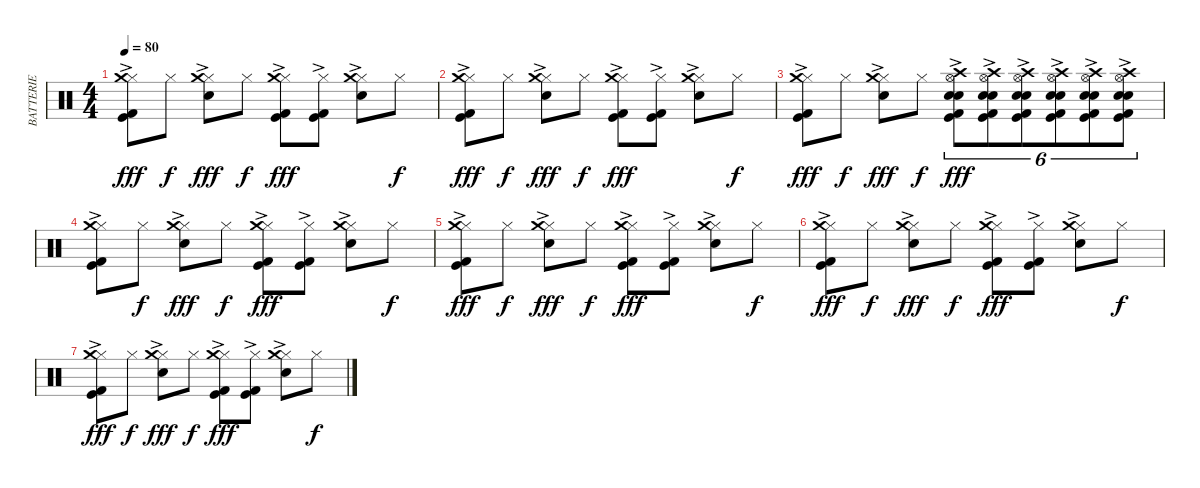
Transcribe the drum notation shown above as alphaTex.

\track ("BATTERIE" "BATTERIE") {instrument percussion}
\staff {score}
\articulation defaults
\ts (4 4)
\tempo 80
\clef neutral
\ks c
("Hi-Hat (closed)"{ac} "Crash medium (hit)" "Kick (hit)"{ac} "Kick (hit) 2"{ac}).8{dy fff} "Hi-Hat (closed)".8{dy f} ("Hi-Hat (closed)"{ac} "Electric Snare (hit)" "Crash medium (hit)").8{dy fff} "Hi-Hat (closed)".8{dy f} ("Hi-Hat (closed)"{ac} "Crash medium (hit)" "Kick (hit)"{ac} "Kick (hit) 2"{ac}).8{dy fff} ("Hi-Hat (closed)" "Kick (hit)"{ac} "Kick (hit) 2"{ac}).8 ("Hi-Hat (closed)"{ac} "Electric Snare (hit)" "Crash medium (hit)").8 "Hi-Hat (closed)".8{dy f} |
("Hi-Hat (closed)"{ac} "Crash medium (hit)" "Kick (hit)"{ac} "Kick (hit) 2"{ac}).8{dy fff} "Hi-Hat (closed)".8{dy f} ("Hi-Hat (closed)"{ac} "Electric Snare (hit)" "Crash medium (hit)").8{dy fff} "Hi-Hat (closed)".8{dy f} ("Hi-Hat (closed)"{ac} "Crash medium (hit)" "Kick (hit)"{ac} "Kick (hit) 2"{ac}).8{dy fff} ("Hi-Hat (closed)" "Kick (hit)"{ac} "Kick (hit) 2"{ac}).8 ("Hi-Hat (closed)"{ac} "Electric Snare (hit)" "Crash medium (hit)").8 "Hi-Hat (closed)".8{dy f} |
("Hi-Hat (closed)"{ac} "Crash medium (hit)" "Kick (hit)"{ac} "Kick (hit) 2"{ac}).8{dy fff} "Hi-Hat (closed)".8{dy f} ("Hi-Hat (closed)"{ac} "Electric Snare (hit)" "Crash medium (hit)").8{dy fff} "Hi-Hat (closed)".8{dy f} ("Hi-Hat (open)" "Electric Snare (hit)"{ac} "Electric Snare (hit)"{ac} "Kick (hit) 2" "Kick (hit)" "Crash high (hit)").8{tu (6 4) dy fff} ("Hi-Hat (open)" "Electric Snare (hit)"{ac} "Electric Snare (hit)"{ac} "Kick (hit) 2" "Kick (hit)" "Crash high (hit)").8{tu (6 4)} ("Hi-Hat (open)" "Electric Snare (hit)"{ac} "Electric Snare (hit)"{ac} "Kick (hit) 2" "Kick (hit)" "Crash high (hit)").8{tu (6 4)} ("Hi-Hat (open)" "Electric Snare (hit)"{ac} "Electric Snare (hit)"{ac} "Kick (hit) 2" "Kick (hit)" "Crash high (hit)").8{tu (6 4)} ("Hi-Hat (open)" "Electric Snare (hit)"{ac} "Electric Snare (hit)"{ac} "Kick (hit) 2" "Kick (hit)" "Crash high (hit)").8{tu (6 4)} ("Hi-Hat (open)" "Electric Snare (hit)"{ac} "Electric Snare (hit)"{ac} "Kick (hit) 2" "Kick (hit)" "Crash high (hit)").8{tu (6 4)} |
("Hi-Hat (closed)"{ac} "Crash medium (hit)" "Kick (hit)"{ac} "Kick (hit) 2"{ac}).8 "Hi-Hat (closed)".8{dy f} ("Hi-Hat (closed)"{ac} "Electric Snare (hit)" "Crash medium (hit)").8{dy fff} "Hi-Hat (closed)".8{dy f} ("Hi-Hat (closed)"{ac} "Crash medium (hit)" "Kick (hit)"{ac} "Kick (hit) 2"{ac}).8{dy fff} ("Hi-Hat (closed)" "Kick (hit)"{ac} "Kick (hit) 2"{ac}).8 ("Hi-Hat (closed)"{ac} "Electric Snare (hit)" "Crash medium (hit)").8 "Hi-Hat (closed)".8{dy f} |
("Hi-Hat (closed)"{ac} "Crash medium (hit)" "Kick (hit)"{ac} "Kick (hit) 2"{ac}).8{dy fff} "Hi-Hat (closed)".8{dy f} ("Hi-Hat (closed)"{ac} "Electric Snare (hit)" "Crash medium (hit)").8{dy fff} "Hi-Hat (closed)".8{dy f} ("Hi-Hat (closed)"{ac} "Crash medium (hit)" "Kick (hit)"{ac} "Kick (hit) 2"{ac}).8{dy fff} ("Hi-Hat (closed)" "Kick (hit)"{ac} "Kick (hit) 2"{ac}).8 ("Hi-Hat (closed)"{ac} "Electric Snare (hit)" "Crash medium (hit)").8 "Hi-Hat (closed)".8{dy f} |
("Hi-Hat (closed)"{ac} "Crash medium (hit)" "Kick (hit)"{ac} "Kick (hit) 2"{ac}).8{dy fff} "Hi-Hat (closed)".8{dy f} ("Hi-Hat (closed)"{ac} "Electric Snare (hit)" "Crash medium (hit)").8{dy fff} "Hi-Hat (closed)".8{dy f} ("Hi-Hat (closed)"{ac} "Crash medium (hit)" "Kick (hit)"{ac} "Kick (hit) 2"{ac}).8{dy fff} ("Hi-Hat (closed)" "Kick (hit)"{ac} "Kick (hit) 2"{ac}).8 ("Hi-Hat (closed)"{ac} "Electric Snare (hit)" "Crash medium (hit)").8 "Hi-Hat (closed)".8{dy f} |
("Hi-Hat (closed)"{ac} "Crash medium (hit)" "Kick (hit)"{ac} "Kick (hit) 2"{ac}).8{dy fff} "Hi-Hat (closed)".8{dy f} ("Hi-Hat (closed)"{ac} "Electric Snare (hit)" "Crash medium (hit)").8{dy fff} "Hi-Hat (closed)".8{dy f} ("Hi-Hat (closed)"{ac} "Crash medium (hit)" "Kick (hit)"{ac} "Kick (hit) 2"{ac}).8{dy fff} ("Hi-Hat (closed)" "Kick (hit)"{ac} "Kick (hit) 2"{ac}).8 ("Hi-Hat (closed)"{ac} "Electric Snare (hit)" "Crash medium (hit)").8 "Hi-Hat (closed)".8{dy f}
